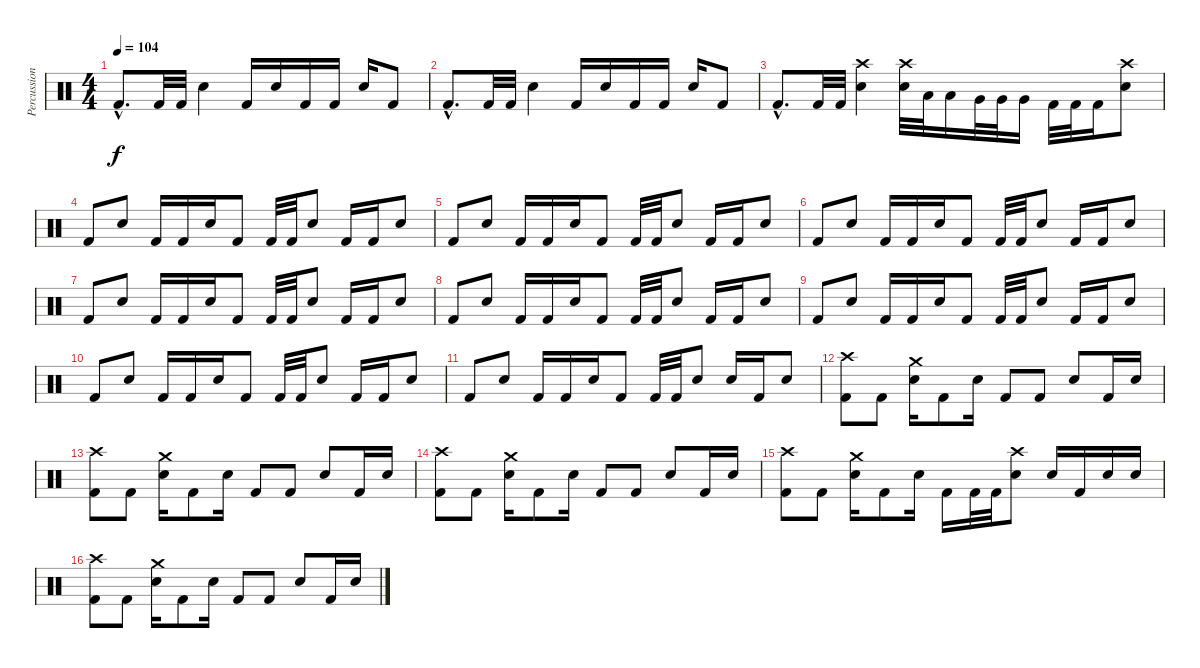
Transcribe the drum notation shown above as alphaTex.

\track ("Percussion" "Percussion") {instrument percussion}
\staff {score}
\articulation defaults
\ts (4 4)
\tempo 104
\clef neutral
\ks c "Kick (hit) 2"{hac}.8{d dy f} "Kick (hit) 2".32 "Kick (hit) 2".32 "Electric Snare (hit)".4 "Kick (hit) 2".16 "Electric Snare (hit)".16 "Kick (hit) 2".16 "Kick (hit) 2".16 "Electric Snare (hit)".16 "Kick (hit) 2".8
|
"Kick (hit) 2"{hac}.8{d} "Kick (hit) 2".32 "Kick (hit) 2".32 "Electric Snare (hit)".4 "Kick (hit) 2".16 "Electric Snare (hit)".16 "Kick (hit) 2".16 "Kick (hit) 2".16 "Electric Snare (hit)".16 "Kick (hit) 2".8 |
"Kick (hit) 2"{hac}.8{d} "Kick (hit) 2".32 "Kick (hit) 2".32 ("Crash high (hit)" "Electric Snare (hit)").4 ("Crash high (hit)" "Electric Snare (hit)").32 "Low Tom (hit)".32 "Low Tom (hit)".16 "Very Low Tom (hit)".32 "Very Low Tom (hit)".32 "Very Low Tom (hit)".16 "Kick (hit) 2".32 "Kick (hit) 2".32 "Kick (hit) 2".16 ("Crash high (hit)" "Electric Snare (hit)").8 |
"Kick (hit) 2".8 "Electric Snare (hit)".8 "Kick (hit) 2".16 "Kick (hit) 2".16 "Electric Snare (hit)".16 "Kick (hit) 2".8 "Kick (hit) 2".32 "Kick (hit) 2".32 "Electric Snare (hit)".8 "Kick (hit) 2".16 "Kick (hit) 2".16 "Electric Snare (hit)".8 |
"Kick (hit) 2".8 "Electric Snare (hit)".8 "Kick (hit) 2".16 "Kick (hit) 2".16 "Electric Snare (hit)".16 "Kick (hit) 2".8 "Kick (hit) 2".32 "Kick (hit) 2".32 "Electric Snare (hit)".8 "Kick (hit) 2".16 "Kick (hit) 2".16 "Electric Snare (hit)".8 |
"Kick (hit) 2".8 "Electric Snare (hit)".8 "Kick (hit) 2".16 "Kick (hit) 2".16 "Electric Snare (hit)".16 "Kick (hit) 2".8 "Kick (hit) 2".32 "Kick (hit) 2".32 "Electric Snare (hit)".8 "Kick (hit) 2".16 "Kick (hit) 2".16 "Electric Snare (hit)".8 |
"Kick (hit) 2".8 "Electric Snare (hit)".8 "Kick (hit) 2".16 "Kick (hit) 2".16 "Electric Snare (hit)".16 "Kick (hit) 2".8 "Kick (hit) 2".32 "Kick (hit) 2".32 "Electric Snare (hit)".8 "Kick (hit) 2".16 "Kick (hit) 2".16 "Electric Snare (hit)".8 |
"Kick (hit) 2".8 "Electric Snare (hit)".8 "Kick (hit) 2".16 "Kick (hit) 2".16 "Electric Snare (hit)".16 "Kick (hit) 2".8 "Kick (hit) 2".32 "Kick (hit) 2".32 "Electric Snare (hit)".8 "Kick (hit) 2".16 "Kick (hit) 2".16 "Electric Snare (hit)".8 |
"Kick (hit) 2".8 "Electric Snare (hit)".8 "Kick (hit) 2".16 "Kick (hit) 2".16 "Electric Snare (hit)".16 "Kick (hit) 2".8 "Kick (hit) 2".32 "Kick (hit) 2".32 "Electric Snare (hit)".8 "Kick (hit) 2".16 "Kick (hit) 2".16 "Electric Snare (hit)".8 |
"Kick (hit) 2".8 "Electric Snare (hit)".8 "Kick (hit) 2".16 "Kick (hit) 2".16 "Electric Snare (hit)".16 "Kick (hit) 2".8 "Kick (hit) 2".32 "Kick (hit) 2".32 "Electric Snare (hit)".8 "Kick (hit) 2".16 "Kick (hit) 2".16 "Electric Snare (hit)".8 |
"Kick (hit) 2".8 "Electric Snare (hit)".8 "Kick (hit) 2".16 "Kick (hit) 2".16 "Electric Snare (hit)".16 "Kick (hit) 2".8 "Kick (hit) 2".32 "Kick (hit) 2".32 "Electric Snare (hit)".8 "Electric Snare (hit)".16 "Kick (hit) 2".16 "Electric Snare (hit)".8 |
("Crash high (hit)" "Kick (hit) 2").8 "Kick (hit) 2".8 ("Crash medium (hit)" "Electric Snare (hit)").16 "Kick (hit) 2".8 "Electric Snare (hit)".16 "Kick (hit) 2".8 "Kick (hit) 2".8 "Electric Snare (hit)".8 "Kick (hit) 2".16 "Electric Snare (hit)".16 |
("Crash high (hit)" "Kick (hit) 2").8 "Kick (hit) 2".8 ("Crash medium (hit)" "Electric Snare (hit)").16 "Kick (hit) 2".8 "Electric Snare (hit)".16 "Kick (hit) 2".8 "Kick (hit) 2".8 "Electric Snare (hit)".8 "Kick (hit) 2".16 "Electric Snare (hit)".16 |
("Crash high (hit)" "Kick (hit) 2").8 "Kick (hit) 2".8 ("Crash medium (hit)" "Electric Snare (hit)").16 "Kick (hit) 2".8 "Electric Snare (hit)".16 "Kick (hit) 2".8 "Kick (hit) 2".8 "Electric Snare (hit)".8 "Kick (hit) 2".16 "Electric Snare (hit)".16 |
("Crash high (hit)" "Kick (hit) 2").8 "Kick (hit) 2".8 ("Crash medium (hit)" "Electric Snare (hit)").16 "Kick (hit) 2".8 "Electric Snare (hit)".16 "Kick (hit) 2".16 "Kick (hit) 2".32 "Kick (hit) 2".32 ("Crash high (hit)" "Electric Snare (hit)").8 "Electric Snare (hit)".16 "Kick (hit) 2".16 "Electric Snare (hit)".16 "Electric Snare (hit)".16 |
("Crash high (hit)" "Kick (hit) 2").8 "Kick (hit) 2".8 ("Crash medium (hit)" "Electric Snare (hit)").16 "Kick (hit) 2".8 "Electric Snare (hit)".16 "Kick (hit) 2".8 "Kick (hit) 2".8 "Electric Snare (hit)".8 "Kick (hit) 2".16 "Electric Snare (hit)".16
